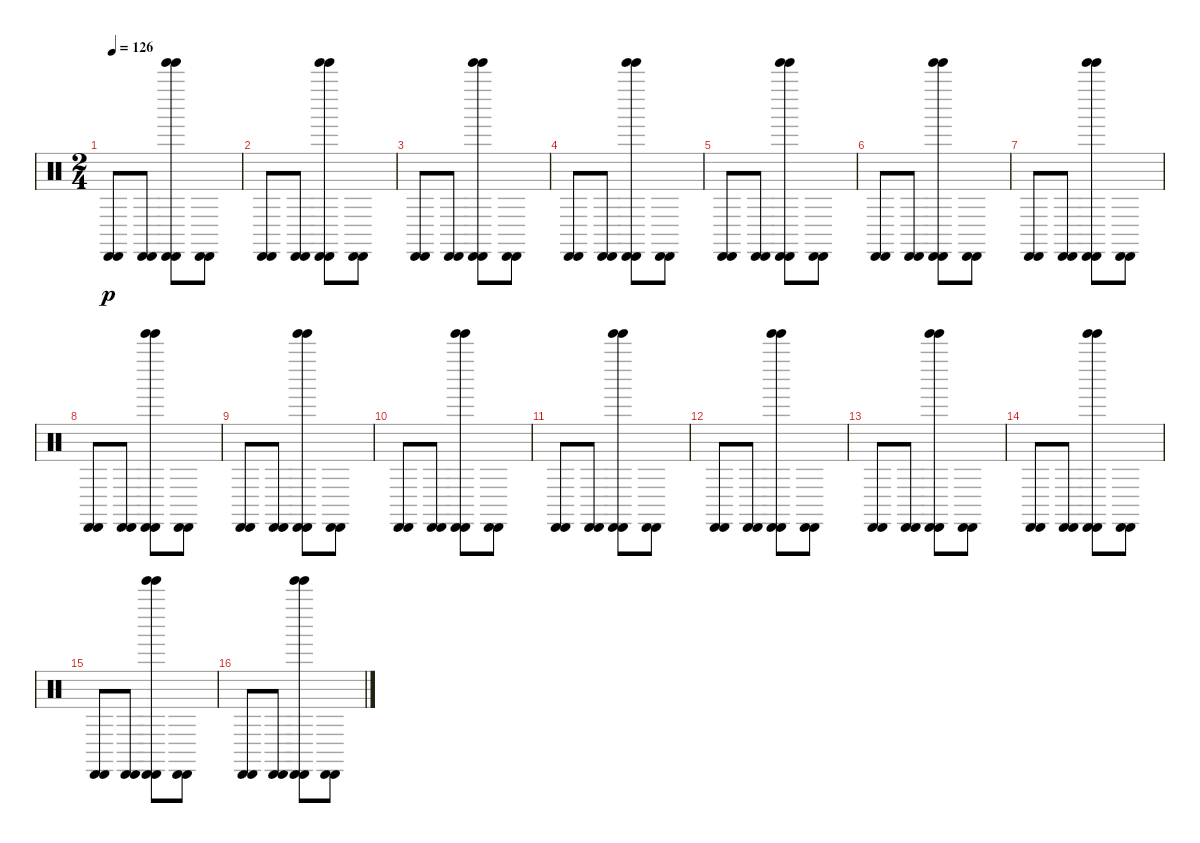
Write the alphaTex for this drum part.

\track "" {instrument percussion}
\staff {score}
\articulation defaults
\ts (2 4)
\tempo 126
\clef neutral
\ks c
("Cabasa (hit)" "Cabasa (hit)").8{dy p} ("Cabasa (hit)" "Cabasa (hit)").8 ("Tinkle Bell (hit)" "Cabasa (hit)" "Tinkle Bell (hit)" "Cabasa (hit)").8 ("Cabasa (hit)" "Cabasa (hit)").8 |
("Cabasa (hit)" "Cabasa (hit)").8 ("Cabasa (hit)" "Cabasa (hit)").8 ("Tinkle Bell (hit)" "Cabasa (hit)" "Tinkle Bell (hit)" "Cabasa (hit)").8 ("Cabasa (hit)" "Cabasa (hit)").8 |
("Cabasa (hit)" "Cabasa (hit)").8 ("Cabasa (hit)" "Cabasa (hit)").8 ("Tinkle Bell (hit)" "Cabasa (hit)" "Tinkle Bell (hit)" "Cabasa (hit)").8 ("Cabasa (hit)" "Cabasa (hit)").8 |
("Cabasa (hit)" "Cabasa (hit)").8 ("Cabasa (hit)" "Cabasa (hit)").8 ("Tinkle Bell (hit)" "Cabasa (hit)" "Tinkle Bell (hit)" "Cabasa (hit)").8 ("Cabasa (hit)" "Cabasa (hit)").8 |
("Cabasa (hit)" "Cabasa (hit)").8 ("Cabasa (hit)" "Cabasa (hit)").8 ("Tinkle Bell (hit)" "Cabasa (hit)" "Tinkle Bell (hit)" "Cabasa (hit)").8 ("Cabasa (hit)" "Cabasa (hit)").8 |
("Cabasa (hit)" "Cabasa (hit)").8 ("Cabasa (hit)" "Cabasa (hit)").8 ("Tinkle Bell (hit)" "Cabasa (hit)" "Tinkle Bell (hit)" "Cabasa (hit)").8 ("Cabasa (hit)" "Cabasa (hit)").8 |
("Cabasa (hit)" "Cabasa (hit)").8 ("Cabasa (hit)" "Cabasa (hit)").8 ("Tinkle Bell (hit)" "Cabasa (hit)" "Tinkle Bell (hit)" "Cabasa (hit)").8 ("Cabasa (hit)" "Cabasa (hit)").8 |
("Cabasa (hit)" "Cabasa (hit)").8 ("Cabasa (hit)" "Cabasa (hit)").8 ("Tinkle Bell (hit)" "Cabasa (hit)" "Tinkle Bell (hit)" "Cabasa (hit)").8 ("Cabasa (hit)" "Cabasa (hit)").8 |
("Cabasa (hit)" "Cabasa (hit)").8 ("Cabasa (hit)" "Cabasa (hit)").8 ("Tinkle Bell (hit)" "Cabasa (hit)" "Tinkle Bell (hit)" "Cabasa (hit)").8 ("Cabasa (hit)" "Cabasa (hit)").8 |
("Cabasa (hit)" "Cabasa (hit)").8 ("Cabasa (hit)" "Cabasa (hit)").8 ("Tinkle Bell (hit)" "Cabasa (hit)" "Tinkle Bell (hit)" "Cabasa (hit)").8 ("Cabasa (hit)" "Cabasa (hit)").8 |
("Cabasa (hit)" "Cabasa (hit)").8 ("Cabasa (hit)" "Cabasa (hit)").8 ("Tinkle Bell (hit)" "Cabasa (hit)" "Tinkle Bell (hit)" "Cabasa (hit)").8 ("Cabasa (hit)" "Cabasa (hit)").8 |
("Cabasa (hit)" "Cabasa (hit)").8 ("Cabasa (hit)" "Cabasa (hit)").8 ("Tinkle Bell (hit)" "Cabasa (hit)" "Tinkle Bell (hit)" "Cabasa (hit)").8 ("Cabasa (hit)" "Cabasa (hit)").8 |
("Cabasa (hit)" "Cabasa (hit)").8 ("Cabasa (hit)" "Cabasa (hit)").8 ("Tinkle Bell (hit)" "Cabasa (hit)" "Tinkle Bell (hit)" "Cabasa (hit)").8 ("Cabasa (hit)" "Cabasa (hit)").8 |
("Cabasa (hit)" "Cabasa (hit)").8 ("Cabasa (hit)" "Cabasa (hit)").8 ("Tinkle Bell (hit)" "Cabasa (hit)" "Tinkle Bell (hit)" "Cabasa (hit)").8 ("Cabasa (hit)" "Cabasa (hit)").8 |
("Cabasa (hit)" "Cabasa (hit)").8 ("Cabasa (hit)" "Cabasa (hit)").8 ("Tinkle Bell (hit)" "Cabasa (hit)" "Tinkle Bell (hit)" "Cabasa (hit)").8 ("Cabasa (hit)" "Cabasa (hit)").8 |
("Cabasa (hit)" "Cabasa (hit)").8 ("Cabasa (hit)" "Cabasa (hit)").8 ("Tinkle Bell (hit)" "Cabasa (hit)" "Tinkle Bell (hit)" "Cabasa (hit)").8 ("Cabasa (hit)" "Cabasa (hit)").8
